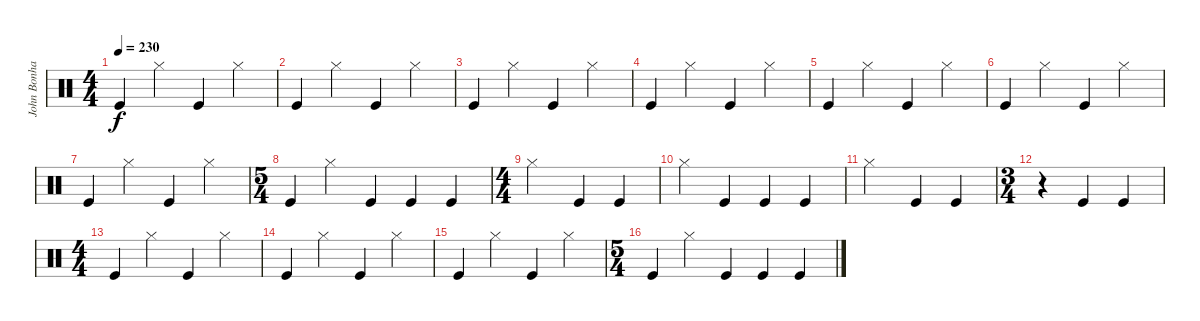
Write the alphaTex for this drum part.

\track ("John Bonham" "John Bonha") {instrument percussion}
\staff {score}
\articulation defaults
\ts (4 4)
\tempo 230
\clef neutral
\ks c "Kick (hit)".4{dy f} "Hi-Hat (closed)".4 "Kick (hit)".4 "Hi-Hat (closed)".4
|
"Kick (hit)".4 "Hi-Hat (closed)".4 "Kick (hit)".4 "Hi-Hat (closed)".4 |
"Kick (hit)".4 "Hi-Hat (closed)".4 "Kick (hit)".4 "Hi-Hat (closed)".4 |
"Kick (hit)".4 "Hi-Hat (closed)".4 "Kick (hit)".4 "Hi-Hat (closed)".4 |
"Kick (hit)".4 "Hi-Hat (closed)".4 "Kick (hit)".4 "Hi-Hat (closed)".4 |
"Kick (hit)".4 "Hi-Hat (closed)".4 "Kick (hit)".4 "Hi-Hat (closed)".4 |
"Kick (hit)".4 "Hi-Hat (closed)".4 "Kick (hit)".4 "Hi-Hat (closed)".4 |
\ts (5 4)
"Kick (hit)".4 "Hi-Hat (closed)".4 "Kick (hit)".4 "Kick (hit)".4 "Kick (hit)".4 |
\ts (4 4)
"Hi-Hat (closed)".2 "Kick (hit)".4 "Kick (hit)".4 |
"Hi-Hat (closed)".4 "Kick (hit)".4 "Kick (hit)".4 "Kick (hit)".4 |
"Hi-Hat (closed)".2 "Kick (hit)".4 "Kick (hit)".4 |
\ts (3 4)
r.4 "Kick (hit)".4 "Kick (hit)".4 |
\ts (4 4)
"Kick (hit)".4 "Hi-Hat (closed)".4 "Kick (hit)".4 "Hi-Hat (closed)".4 |
"Kick (hit)".4 "Hi-Hat (closed)".4 "Kick (hit)".4 "Hi-Hat (closed)".4 |
"Kick (hit)".4 "Hi-Hat (closed)".4 "Kick (hit)".4 "Hi-Hat (closed)".4 |
\ts (5 4)
"Kick (hit)".4 "Hi-Hat (closed)".4 "Kick (hit)".4 "Kick (hit)".4 "Kick (hit)".4
